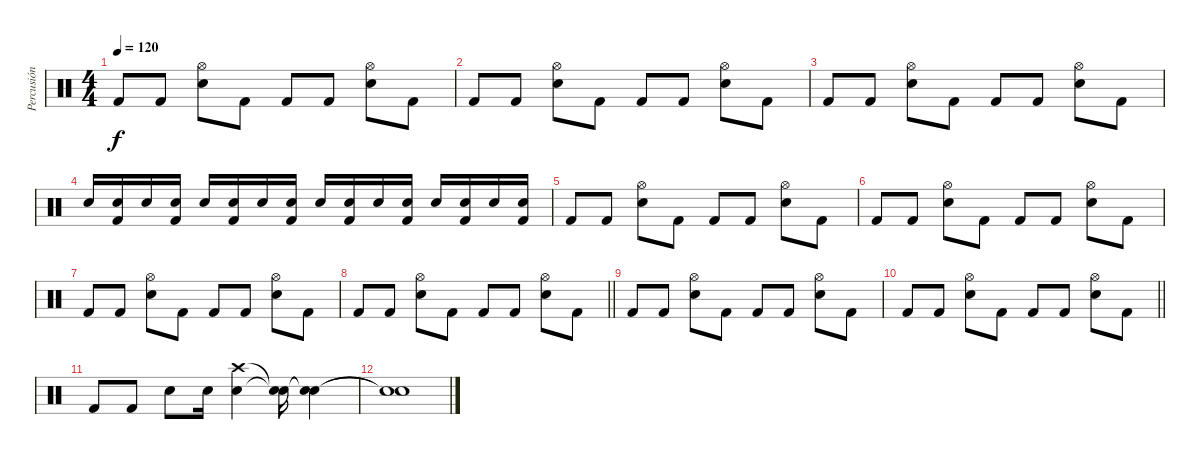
\track ("Percusión" "Percusión") {instrument percussion}
\staff {score}
\articulation defaults
\ts (4 4)
\tempo 120
\clef neutral
\ks c "Kick (hit) 2".8{dy f} "Kick (hit) 2".8
("Hi-Hat (open)" "Electric Snare (hit)").8 "Kick (hit) 2".8 "Kick (hit) 2".8 "Kick (hit) 2".8 ("Hi-Hat (open)" "Electric Snare (hit)").8 "Kick (hit) 2".8 |
"Kick (hit) 2".8 "Kick (hit) 2".8 ("Hi-Hat (open)" "Electric Snare (hit)").8 "Kick (hit) 2".8 "Kick (hit) 2".8 "Kick (hit) 2".8 ("Hi-Hat (open)" "Electric Snare (hit)").8 "Kick (hit) 2".8 |
"Kick (hit) 2".8 "Kick (hit) 2".8 ("Hi-Hat (open)" "Electric Snare (hit)").8 "Kick (hit) 2".8 "Kick (hit) 2".8 "Kick (hit) 2".8 ("Hi-Hat (open)" "Electric Snare (hit)").8 "Kick (hit) 2".8 |
"Electric Snare (hit)".16 ("Electric Snare (hit)" "Kick (hit) 2").16 "Electric Snare (hit)".16 ("Electric Snare (hit)" "Kick (hit) 2").16 "Electric Snare (hit)".16 ("Electric Snare (hit)" "Kick (hit) 2").16 "Electric Snare (hit)".16 ("Electric Snare (hit)" "Kick (hit) 2").16 "Electric Snare (hit)".16 ("Electric Snare (hit)" "Kick (hit) 2").16 "Electric Snare (hit)".16 ("Electric Snare (hit)" "Kick (hit) 2").16 "Electric Snare (hit)".16 ("Electric Snare (hit)" "Kick (hit) 2").16 "Electric Snare (hit)".16 ("Electric Snare (hit)" "Kick (hit) 2").16 |
"Kick (hit) 2".8 "Kick (hit) 2".8 ("Hi-Hat (open)" "Electric Snare (hit)").8 "Kick (hit) 2".8 "Kick (hit) 2".8 "Kick (hit) 2".8 ("Hi-Hat (open)" "Electric Snare (hit)").8 "Kick (hit) 2".8 |
"Kick (hit) 2".8 "Kick (hit) 2".8 ("Hi-Hat (open)" "Electric Snare (hit)").8 "Kick (hit) 2".8 "Kick (hit) 2".8 "Kick (hit) 2".8 ("Hi-Hat (open)" "Electric Snare (hit)").8 "Kick (hit) 2".8 |
"Kick (hit) 2".8 "Kick (hit) 2".8 ("Hi-Hat (open)" "Electric Snare (hit)").8 "Kick (hit) 2".8 "Kick (hit) 2".8 "Kick (hit) 2".8 ("Hi-Hat (open)" "Electric Snare (hit)").8 "Kick (hit) 2".8 |
\barLineRight lightlight "Kick (hit) 2".8 "Kick (hit) 2".8
("Hi-Hat (open)" "Electric Snare (hit)").8 "Kick (hit) 2".8 "Kick (hit) 2".8 "Kick (hit) 2".8 ("Hi-Hat (open)" "Electric Snare (hit)").8 "Kick (hit) 2".8 |
"Kick (hit) 2".8 "Kick (hit) 2".8 ("Hi-Hat (open)" "Electric Snare (hit)").8 "Kick (hit) 2".8 "Kick (hit) 2".8 "Kick (hit) 2".8 ("Hi-Hat (open)" "Electric Snare (hit)").8 "Kick (hit) 2".8 |
\barLineRight lightlight "Kick (hit) 2".8 "Kick (hit) 2".8
("Hi-Hat (open)" "Electric Snare (hit)").8 "Kick (hit) 2".8 "Kick (hit) 2".8 "Kick (hit) 2".8 ("Hi-Hat (open)" "Electric Snare (hit)").8 "Kick (hit) 2".8 |
"Kick (hit) 2".8 "Kick (hit) 2".8 "Electric Snare (hit)".8 "Electric Snare (hit)".16 ("Crash high (hit)" "Electric Snare (hit)").4 ("Snare (hit)"{t} "Snare (hit)"{t}).16 ("Snare (hit)"{t} "Snare (hit)"{t}).4 |
("Snare (hit)"{t} "Snare (hit)"{t}).1
